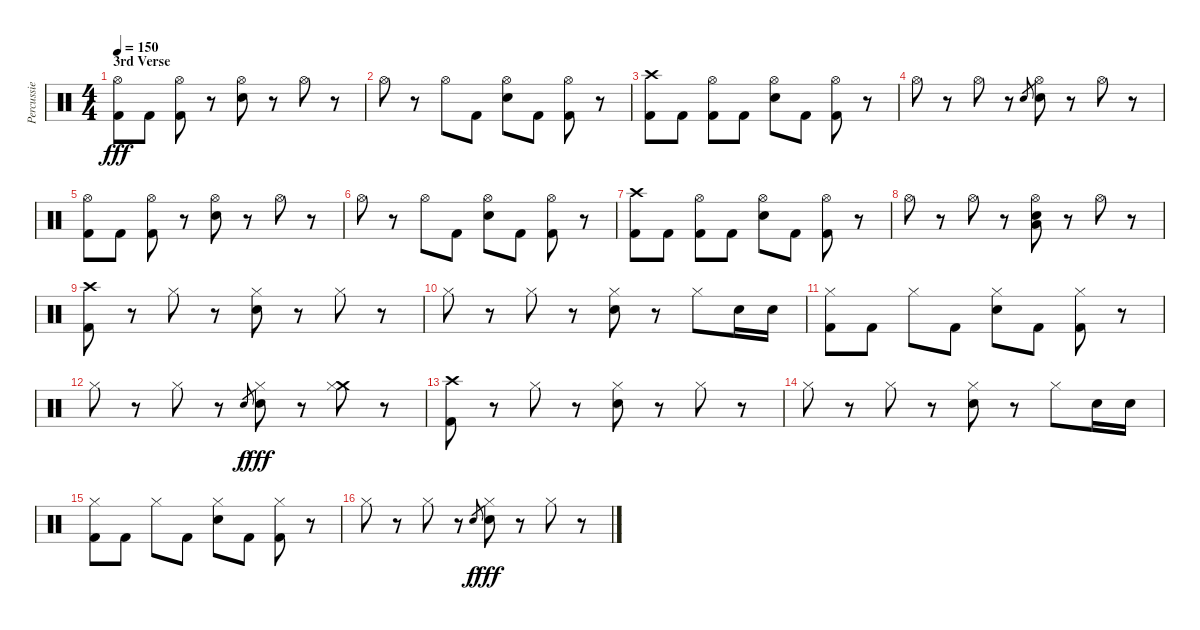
\track ("Percussie" "Percussie") {instrument percussion}
\staff {score}
\articulation defaults
\ts (4 4)
\section ("" "3rd Verse")
\tempo 150
\clef neutral
\ks c
("Kick (hit) 2" "Hi-Hat (open)").8{dy fff} "Kick (hit) 2".8 ("Kick (hit) 2" "Hi-Hat (open)").8 r.8 ("Electric Snare (hit)" "Hi-Hat (open)").8 r.8 "Hi-Hat (open)".8 r.8 |
"Hi-Hat (open)".8 r.8 "Hi-Hat (open)".8 "Kick (hit) 2".8 ("Electric Snare (hit)" "Hi-Hat (open)").8 "Kick (hit) 2".8 ("Kick (hit) 2" "Hi-Hat (open)").8 r.8 |
("Kick (hit) 2" "Crash high (hit)").8 "Kick (hit) 2".8 ("Kick (hit) 2" "Hi-Hat (open)").8 "Kick (hit) 2".8 ("Electric Snare (hit)" "Hi-Hat (open)").8 "Kick (hit) 2".8 ("Kick (hit) 2" "Hi-Hat (open)").8 r.8 |
"Hi-Hat (open)".8 r.8 "Hi-Hat (open)".8 r.8 "Electric Snare (hit)".8{gr} ("Electric Snare (hit)" "Hi-Hat (open)").8 r.8 "Hi-Hat (open)".8 r.8 |
("Kick (hit) 2" "Hi-Hat (open)").8 "Kick (hit) 2".8 ("Kick (hit) 2" "Hi-Hat (open)").8 r.8 ("Electric Snare (hit)" "Hi-Hat (open)").8 r.8 "Hi-Hat (open)".8 r.8 |
"Hi-Hat (open)".8 r.8 "Hi-Hat (open)".8 "Kick (hit) 2".8 ("Electric Snare (hit)" "Hi-Hat (open)").8 "Kick (hit) 2".8 ("Kick (hit) 2" "Hi-Hat (open)").8 r.8 |
("Kick (hit) 2" "Crash high (hit)").8 "Kick (hit) 2".8 ("Kick (hit) 2" "Hi-Hat (open)").8 "Kick (hit) 2".8 ("Electric Snare (hit)" "Hi-Hat (open)").8 "Kick (hit) 2".8 ("Kick (hit) 2" "Hi-Hat (open)").8 r.8 |
"Hi-Hat (open)".8 r.8 "Hi-Hat (open)".8 r.8 ("Electric Snare (hit)" "Low Tom (hit)" "Hi-Hat (open)").8 r.8 "Hi-Hat (open)".8 r.8 |
("Kick (hit) 2" "Crash high (hit)").8 r.8 "Hi-Hat (closed)".8 r.8 ("Electric Snare (hit)" "Hi-Hat (closed)").8 r.8 "Hi-Hat (closed)".8 r.8 |
"Hi-Hat (closed)".8 r.8 "Hi-Hat (closed)".8 r.8 ("Electric Snare (hit)" "Hi-Hat (closed)").8 r.8 "Hi-Hat (closed)".8 "Electric Snare (hit)".16 "Electric Snare (hit)".16 |
("Kick (hit) 2" "Hi-Hat (closed)").8 "Kick (hit) 2".8 "Hi-Hat (closed)".8 "Kick (hit) 2".8 ("Electric Snare (hit)" "Hi-Hat (closed)").8 "Kick (hit) 2".8 ("Kick (hit) 2" "Hi-Hat (closed)").8 r.8 |
"Hi-Hat (closed)".8 r.8 "Hi-Hat (closed)".8 r.8 "Electric Snare (hit)".8{gr dy f} ("Electric Snare (hit)" "Hi-Hat (closed)").8{dy fff} r.8 ("Crash medium (hit)" "Hi-Hat (closed)").8 r.8 |
("Kick (hit) 2" "Crash high (hit)").8 r.8 "Hi-Hat (closed)".8 r.8 ("Electric Snare (hit)" "Hi-Hat (closed)").8 r.8 "Hi-Hat (closed)".8 r.8 |
"Hi-Hat (closed)".8 r.8 "Hi-Hat (closed)".8 r.8 ("Electric Snare (hit)" "Hi-Hat (closed)").8 r.8 "Hi-Hat (closed)".8 "Electric Snare (hit)".16 "Electric Snare (hit)".16 |
("Kick (hit) 2" "Hi-Hat (closed)").8 "Kick (hit) 2".8 "Hi-Hat (closed)".8 "Kick (hit) 2".8 ("Electric Snare (hit)" "Hi-Hat (closed)").8 "Kick (hit) 2".8 ("Kick (hit) 2" "Hi-Hat (closed)").8 r.8 |
"Hi-Hat (closed)".8 r.8 "Hi-Hat (closed)".8 r.8 "Electric Snare (hit)".8{gr dy f} ("Electric Snare (hit)" "Hi-Hat (closed)").8{dy fff} r.8 "Hi-Hat (closed)".8 r.8
